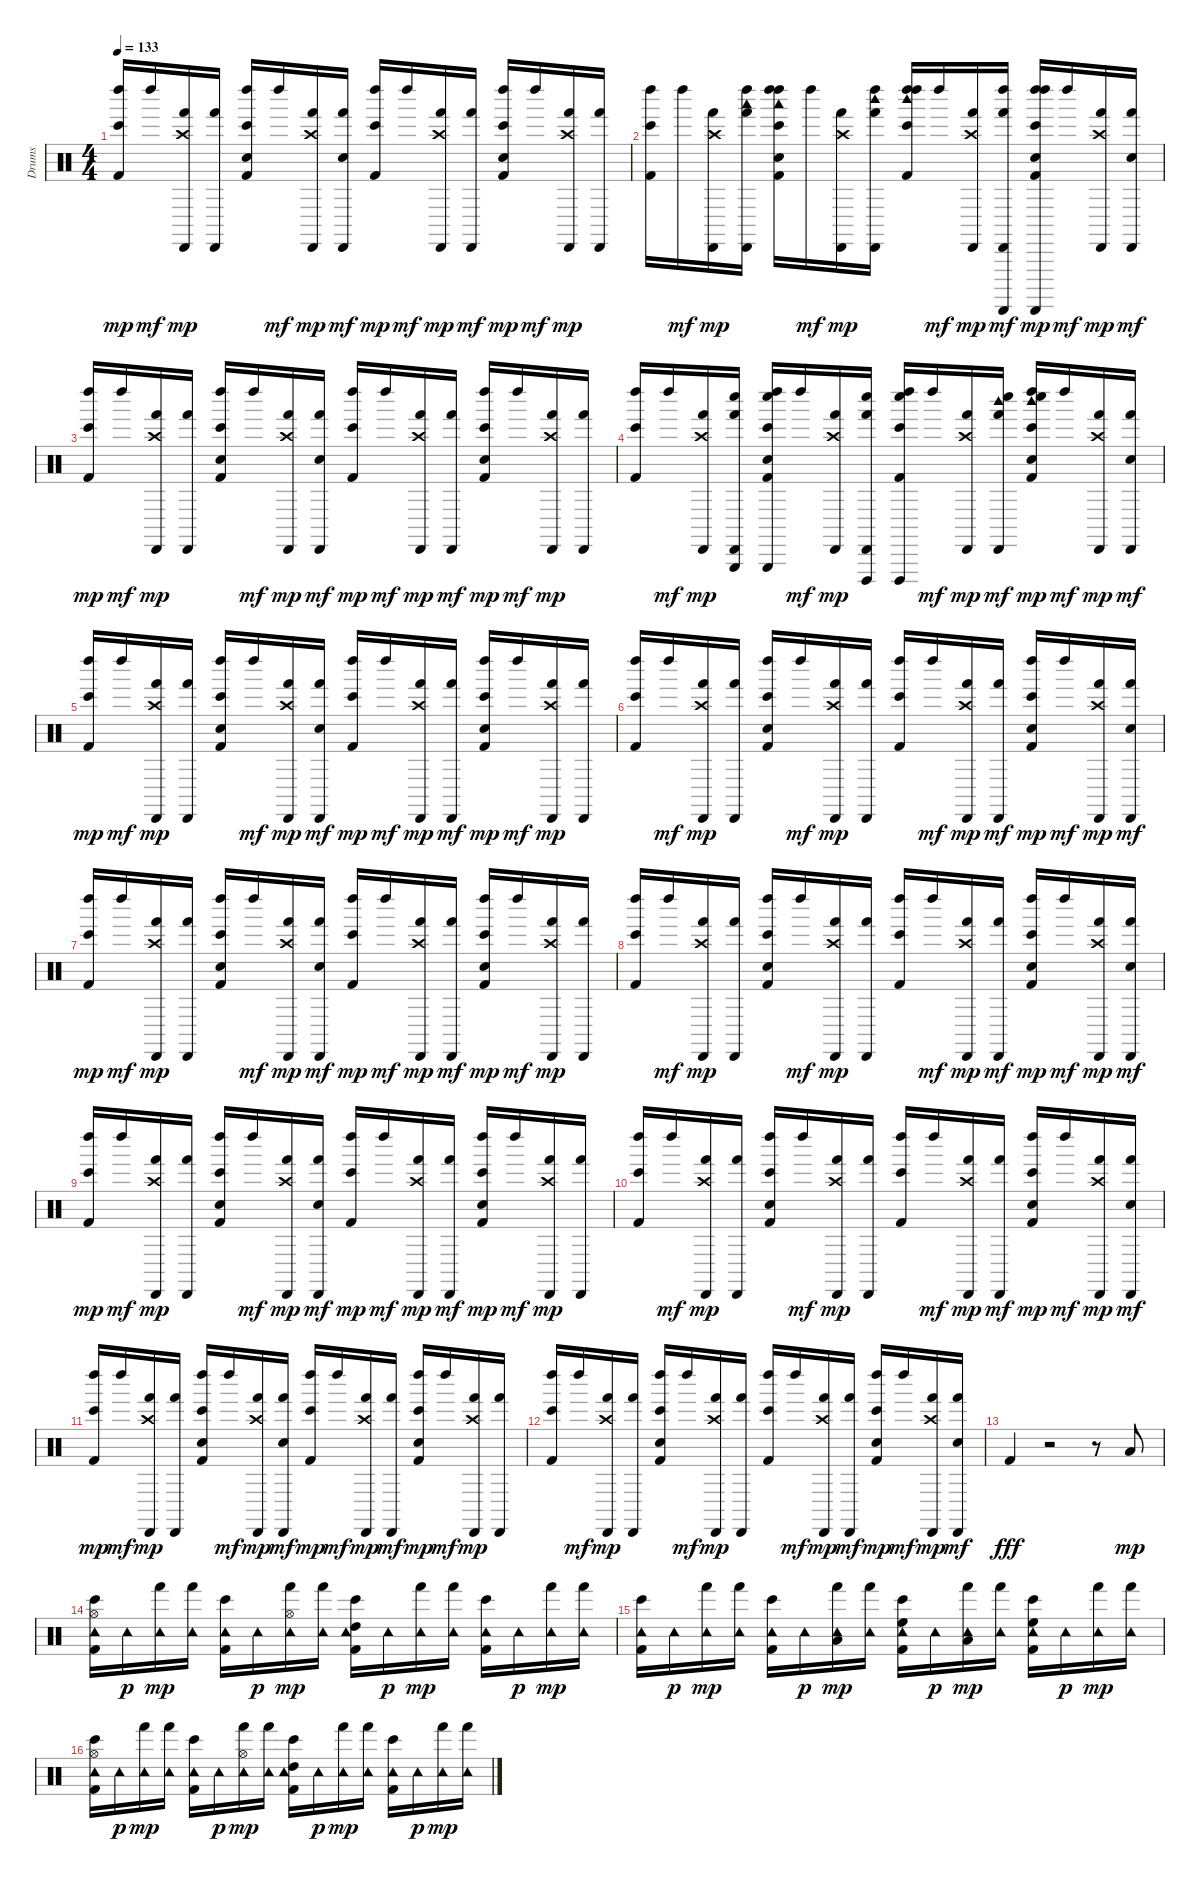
\track ("Drums" "Drums") {instrument percussion}
\staff {score}
\articulation defaults
\ts (4 4)
\tempo 133
\clef neutral
\ks c
("Kick (hit) 2" "Left Maraca (hit)" "Bongo High (hit)").16{dy mp} "Left Maraca (hit)".16{dy mf} ("Crash high (hit)" "Cabasa (hit)" "Hand (hit)").16{dy mp} ("Cabasa (hit)" "Hand (hit)").16 ("Kick (hit) 2" "Hand Clap (hit)" "Left Maraca (hit)" "Bongo High (hit)").16 "Left Maraca (hit)".16{dy mf} ("Crash high (hit)" "Cabasa (hit)" "Hand (hit)").16{dy mp} ("Cabasa (hit)" "Hand (hit)" "Snare (hit) 2").16{dy mf} ("Kick (hit) 2" "Left Maraca (hit)" "Bongo High (hit)").16{dy mp} "Left Maraca (hit)".16{dy mf} ("Crash high (hit)" "Cabasa (hit)" "Hand (hit)").16{dy mp} ("Hand (hit)" "Cabasa (hit)").16{dy mf} ("Kick (hit) 2" "Hand Clap (hit)" "Left Maraca (hit)" "Bongo High (hit)").16{dy mp} "Left Maraca (hit)".16{dy mf} ("Crash high (hit)" "Cabasa (hit)" "Hand (hit)").16{dy mp} ("Cabasa (hit)" "Hand (hit)").16 |
("Kick (hit) 2" "Left Maraca (hit)" "Bongo High (hit)").16 "Left Maraca (hit)".16{dy mf} ("Crash high (hit)" "Cabasa (hit)" "Hand (hit)").16{dy mp} ("Cabasa (hit)" "Hand (hit)" "Left Maraca (hit)" "Woodblock low (hit)").16 ("Kick (hit) 2" "Hand Clap (hit)" "Left Maraca (hit)" "Bongo High (hit)" "Left Maraca (hit)" "Woodblock low (hit)").16 "Left Maraca (hit)".16{dy mf} ("Crash high (hit)" "Cabasa (hit)" "Hand (hit)").16{dy mp} ("Cabasa (hit)" "Hand (hit)" "Left Maraca (hit)" "Woodblock high (hit)").16 ("Kick (hit) 2" "Left Maraca (hit)" "Bongo High (hit)" "Left Maraca (hit)" "Woodblock high (hit)").16 "Left Maraca (hit)".16{dy mf} ("Crash high (hit)" "Cabasa (hit)" "Hand (hit)").16{dy mp} ("Hand (hit)" "Left Maraca (hit)" "Guiro (scrap-return)" "Cabasa (hit)").16{dy mf} ("Kick (hit) 2" "Hand Clap (hit)" "Left Maraca (hit)" "Bongo High (hit)" "Left Maraca (hit)" "Guiro (scrap-return)").16{dy mp} "Left Maraca (hit)".16{dy mf} ("Crash high (hit)" "Cabasa (hit)" "Hand (hit)").16{dy mp} ("Cabasa (hit)" "Hand (hit)" "Snare (hit) 2").16{dy mf} |
("Kick (hit) 2" "Left Maraca (hit)" "Bongo High (hit)").16{dy mp} "Left Maraca (hit)".16{dy mf} ("Crash high (hit)" "Cabasa (hit)" "Hand (hit)").16{dy mp} ("Cabasa (hit)" "Hand (hit)").16 ("Kick (hit) 2" "Hand Clap (hit)" "Left Maraca (hit)" "Bongo High (hit)").16 "Left Maraca (hit)".16{dy mf} ("Crash high (hit)" "Cabasa (hit)" "Hand (hit)").16{dy mp} ("Cabasa (hit)" "Hand (hit)" "Snare (hit) 2").16{dy mf} ("Kick (hit) 2" "Left Maraca (hit)" "Bongo High (hit)").16{dy mp} "Left Maraca (hit)".16{dy mf} ("Crash high (hit)" "Cabasa (hit)" "Hand (hit)").16{dy mp} ("Hand (hit)" "Cabasa (hit)").16{dy mf} ("Kick (hit) 2" "Hand Clap (hit)" "Left Maraca (hit)" "Bongo High (hit)").16{dy mp} "Left Maraca (hit)".16{dy mf} ("Crash high (hit)" "Cabasa (hit)" "Hand (hit)").16{dy mp} ("Cabasa (hit)" "Hand (hit)").16 |
("Kick (hit) 2" "Left Maraca (hit)" "Bongo High (hit)").16 "Left Maraca (hit)".16{dy mf} ("Crash high (hit)" "Cabasa (hit)" "Hand (hit)").16{dy mp} ("Cabasa (hit)" "Hand (hit)" "Triangle (hit)" "Whistle low (hit)").16 ("Kick (hit) 2" "Hand Clap (hit)" "Left Maraca (hit)" "Bongo High (hit)" "Triangle (hit)" "Whistle low (hit)").16 "Left Maraca (hit)".16{dy mf} ("Crash high (hit)" "Cabasa (hit)" "Hand (hit)").16{dy mp} ("Cabasa (hit)" "Hand (hit)" "Cuica (open)" "Whistle low (hit)").16 ("Kick (hit) 2" "Left Maraca (hit)" "Bongo High (hit)" "Cuica (open)" "Whistle low (hit)").16 "Left Maraca (hit)".16{dy mf} ("Crash high (hit)" "Cabasa (hit)" "Hand (hit)").16{dy mp} ("Hand (hit)" "Woodblock high (hit)" "Whistle low (hit)" "Cabasa (hit)").16{dy mf} ("Kick (hit) 2" "Hand Clap (hit)" "Left Maraca (hit)" "Bongo High (hit)" "Woodblock high (hit)" "Whistle low (hit)").16{dy mp} "Left Maraca (hit)".16{dy mf} ("Crash high (hit)" "Cabasa (hit)" "Hand (hit)").16{dy mp} ("Cabasa (hit)" "Hand (hit)" "Snare (hit) 2").16{dy mf} |
("Kick (hit) 2" "Left Maraca (hit)" "Bongo High (hit)").16{dy mp} "Left Maraca (hit)".16{dy mf} ("Crash high (hit)" "Cabasa (hit)" "Hand (hit)").16{dy mp} ("Cabasa (hit)" "Hand (hit)").16 ("Kick (hit) 2" "Hand Clap (hit)" "Left Maraca (hit)" "Bongo High (hit)").16 "Left Maraca (hit)".16{dy mf} ("Crash high (hit)" "Cabasa (hit)" "Hand (hit)").16{dy mp} ("Cabasa (hit)" "Hand (hit)" "Snare (hit) 2").16{dy mf} ("Kick (hit) 2" "Left Maraca (hit)" "Bongo High (hit)").16{dy mp} "Left Maraca (hit)".16{dy mf} ("Crash high (hit)" "Cabasa (hit)" "Hand (hit)").16{dy mp} ("Hand (hit)" "Cabasa (hit)").16{dy mf} ("Kick (hit) 2" "Hand Clap (hit)" "Left Maraca (hit)" "Bongo High (hit)").16{dy mp} "Left Maraca (hit)".16{dy mf} ("Crash high (hit)" "Cabasa (hit)" "Hand (hit)").16{dy mp} ("Cabasa (hit)" "Hand (hit)").16 |
("Kick (hit) 2" "Left Maraca (hit)" "Bongo High (hit)").16 "Left Maraca (hit)".16{dy mf} ("Crash high (hit)" "Cabasa (hit)" "Hand (hit)").16{dy mp} ("Cabasa (hit)" "Hand (hit)").16 ("Kick (hit) 2" "Hand Clap (hit)" "Left Maraca (hit)" "Bongo High (hit)").16 "Left Maraca (hit)".16{dy mf} ("Crash high (hit)" "Cabasa (hit)" "Hand (hit)").16{dy mp} ("Cabasa (hit)" "Hand (hit)").16 ("Kick (hit) 2" "Left Maraca (hit)" "Bongo High (hit)").16 "Left Maraca (hit)".16{dy mf} ("Crash high (hit)" "Cabasa (hit)" "Hand (hit)").16{dy mp} ("Hand (hit)" "Cabasa (hit)").16{dy mf} ("Kick (hit) 2" "Hand Clap (hit)" "Left Maraca (hit)" "Bongo High (hit)").16{dy mp} "Left Maraca (hit)".16{dy mf} ("Crash high (hit)" "Cabasa (hit)" "Hand (hit)").16{dy mp} ("Cabasa (hit)" "Hand (hit)" "Snare (hit) 2").16{dy mf} |
("Kick (hit) 2" "Left Maraca (hit)" "Bongo High (hit)").16{dy mp} "Left Maraca (hit)".16{dy mf} ("Crash high (hit)" "Cabasa (hit)" "Hand (hit)").16{dy mp} ("Cabasa (hit)" "Hand (hit)").16 ("Kick (hit) 2" "Hand Clap (hit)" "Left Maraca (hit)" "Bongo High (hit)").16 "Left Maraca (hit)".16{dy mf} ("Crash high (hit)" "Cabasa (hit)" "Hand (hit)").16{dy mp} ("Cabasa (hit)" "Hand (hit)" "Snare (hit) 2").16{dy mf} ("Kick (hit) 2" "Left Maraca (hit)" "Bongo High (hit)").16{dy mp} "Left Maraca (hit)".16{dy mf} ("Crash high (hit)" "Cabasa (hit)" "Hand (hit)").16{dy mp} ("Hand (hit)" "Cabasa (hit)").16{dy mf} ("Kick (hit) 2" "Hand Clap (hit)" "Left Maraca (hit)" "Bongo High (hit)").16{dy mp} "Left Maraca (hit)".16{dy mf} ("Crash high (hit)" "Cabasa (hit)" "Hand (hit)").16{dy mp} ("Cabasa (hit)" "Hand (hit)").16 |
("Kick (hit) 2" "Left Maraca (hit)" "Bongo High (hit)").16 "Left Maraca (hit)".16{dy mf} ("Crash high (hit)" "Cabasa (hit)" "Hand (hit)").16{dy mp} ("Cabasa (hit)" "Hand (hit)").16 ("Kick (hit) 2" "Hand Clap (hit)" "Left Maraca (hit)" "Bongo High (hit)").16 "Left Maraca (hit)".16{dy mf} ("Crash high (hit)" "Cabasa (hit)" "Hand (hit)").16{dy mp} ("Cabasa (hit)" "Hand (hit)").16 ("Kick (hit) 2" "Left Maraca (hit)" "Bongo High (hit)").16 "Left Maraca (hit)".16{dy mf} ("Crash high (hit)" "Cabasa (hit)" "Hand (hit)").16{dy mp} ("Hand (hit)" "Cabasa (hit)").16{dy mf} ("Kick (hit) 2" "Hand Clap (hit)" "Left Maraca (hit)" "Bongo High (hit)").16{dy mp} "Left Maraca (hit)".16{dy mf} ("Crash high (hit)" "Cabasa (hit)" "Hand (hit)").16{dy mp} ("Cabasa (hit)" "Hand (hit)" "Snare (hit) 2").16{dy mf} |
("Kick (hit) 2" "Left Maraca (hit)" "Bongo High (hit)").16{dy mp} "Left Maraca (hit)".16{dy mf} ("Crash high (hit)" "Cabasa (hit)" "Hand (hit)").16{dy mp} ("Cabasa (hit)" "Hand (hit)").16 ("Kick (hit) 2" "Hand Clap (hit)" "Left Maraca (hit)" "Bongo High (hit)").16 "Left Maraca (hit)".16{dy mf} ("Crash high (hit)" "Cabasa (hit)" "Hand (hit)").16{dy mp} ("Cabasa (hit)" "Hand (hit)" "Snare (hit) 2").16{dy mf} ("Kick (hit) 2" "Left Maraca (hit)" "Bongo High (hit)").16{dy mp} "Left Maraca (hit)".16{dy mf} ("Crash high (hit)" "Cabasa (hit)" "Hand (hit)").16{dy mp} ("Hand (hit)" "Cabasa (hit)").16{dy mf} ("Kick (hit) 2" "Hand Clap (hit)" "Left Maraca (hit)" "Bongo High (hit)").16{dy mp} "Left Maraca (hit)".16{dy mf} ("Crash high (hit)" "Cabasa (hit)" "Hand (hit)").16{dy mp} ("Cabasa (hit)" "Hand (hit)").16 |
("Kick (hit) 2" "Left Maraca (hit)" "Bongo High (hit)").16 "Left Maraca (hit)".16{dy mf} ("Crash high (hit)" "Cabasa (hit)" "Hand (hit)").16{dy mp} ("Cabasa (hit)" "Hand (hit)").16 ("Kick (hit) 2" "Hand Clap (hit)" "Left Maraca (hit)" "Bongo High (hit)").16 "Left Maraca (hit)".16{dy mf} ("Crash high (hit)" "Cabasa (hit)" "Hand (hit)").16{dy mp} ("Cabasa (hit)" "Hand (hit)").16 ("Kick (hit) 2" "Left Maraca (hit)" "Bongo High (hit)").16 "Left Maraca (hit)".16{dy mf} ("Crash high (hit)" "Cabasa (hit)" "Hand (hit)").16{dy mp} ("Hand (hit)" "Cabasa (hit)").16{dy mf} ("Kick (hit) 2" "Hand Clap (hit)" "Left Maraca (hit)" "Bongo High (hit)").16{dy mp} "Left Maraca (hit)".16{dy mf} ("Crash high (hit)" "Cabasa (hit)" "Hand (hit)").16{dy mp} ("Cabasa (hit)" "Hand (hit)" "Snare (hit) 2").16{dy mf} |
("Kick (hit) 2" "Left Maraca (hit)" "Bongo High (hit)").16{dy mp} "Left Maraca (hit)".16{dy mf} ("Crash high (hit)" "Cabasa (hit)" "Hand (hit)").16{dy mp} ("Cabasa (hit)" "Hand (hit)").16 ("Kick (hit) 2" "Hand Clap (hit)" "Left Maraca (hit)" "Bongo High (hit)").16 "Left Maraca (hit)".16{dy mf} ("Crash high (hit)" "Cabasa (hit)" "Hand (hit)").16{dy mp} ("Cabasa (hit)" "Hand (hit)" "Snare (hit) 2").16{dy mf} ("Kick (hit) 2" "Left Maraca (hit)" "Bongo High (hit)").16{dy mp} "Left Maraca (hit)".16{dy mf} ("Crash high (hit)" "Cabasa (hit)" "Hand (hit)").16{dy mp} ("Hand (hit)" "Cabasa (hit)").16{dy mf} ("Kick (hit) 2" "Hand Clap (hit)" "Left Maraca (hit)" "Bongo High (hit)").16{dy mp} "Left Maraca (hit)".16{dy mf} ("Crash high (hit)" "Cabasa (hit)" "Hand (hit)").16{dy mp} ("Cabasa (hit)" "Hand (hit)").16 |
("Kick (hit) 2" "Left Maraca (hit)" "Bongo High (hit)").16 "Left Maraca (hit)".16{dy mf} ("Crash high (hit)" "Cabasa (hit)" "Hand (hit)").16{dy mp} ("Cabasa (hit)" "Hand (hit)").16 ("Kick (hit) 2" "Hand Clap (hit)" "Left Maraca (hit)" "Bongo High (hit)").16 "Left Maraca (hit)".16{dy mf} ("Crash high (hit)" "Cabasa (hit)" "Hand (hit)").16{dy mp} ("Cabasa (hit)" "Hand (hit)").16 ("Kick (hit) 2" "Left Maraca (hit)" "Bongo High (hit)").16 "Left Maraca (hit)".16{dy mf} ("Crash high (hit)" "Cabasa (hit)" "Hand (hit)").16{dy mp} ("Hand (hit)" "Cabasa (hit)").16{dy mf} ("Kick (hit) 2" "Hand Clap (hit)" "Left Maraca (hit)" "Bongo High (hit)").16{dy mp} "Left Maraca (hit)".16{dy mf} ("Crash high (hit)" "Cabasa (hit)" "Hand (hit)").16{dy mp} ("Cabasa (hit)" "Hand (hit)" "Snare (hit) 2").16{dy mf} |
"Kick (hit) 2".4{dy fff} r.2 r.8 "Low Floor Tom (hit)".8{dy mp} |
("Kick (hit) 2" "Tambourine (hit)" "Bongo High (hit)" "Hi-Hat (open)").16 "Tambourine (hit)".16{dy p} ("Tambourine (hit)" "Hand (hit)").16{dy mp} ("Tambourine (hit)" "Hand (hit)").16 ("Kick (hit) 2" "Tambourine (hit)" "Bongo High (hit)").16 "Tambourine (hit)".16{dy p} ("Tambourine (hit)" "Hand (hit)" "Hi-Hat (open)").16{dy mp} ("Tambourine (hit)" "Hand (hit)").16 ("Kick (hit) 2" "Tambourine (hit)" "Bongo High (hit)" "High Tom (hit)").16 "Tambourine (hit)".16{dy p} ("Tambourine (hit)" "Hand (hit)").16{dy mp} ("Tambourine (hit)" "Hand (hit)").16 ("Kick (hit) 2" "Tambourine (hit)" "Bongo High (hit)").16 "Tambourine (hit)".16{dy p} ("Tambourine (hit)" "Hand (hit)").16{dy mp} ("Tambourine (hit)" "Hand (hit)").16 |
("Kick (hit) 2" "Tambourine (hit)" "Bongo High (hit)").16 "Tambourine (hit)".16{dy p} ("Tambourine (hit)" "Hand (hit)").16{dy mp} ("Tambourine (hit)" "Hand (hit)").16 ("Kick (hit) 2" "Tambourine (hit)" "Bongo High (hit)").16 "Tambourine (hit)".16{dy p} ("Tambourine (hit)" "Hand (hit)" "Low Tom (hit)").16{dy mp} ("Tambourine (hit)" "Hand (hit)").16 ("Kick (hit) 2" "Tambourine (hit)" "Bongo High (hit)" "High Floor Tom (hit)").16 "Tambourine (hit)".16{dy p} ("Tambourine (hit)" "Hand (hit)" "Low Tom (hit)").16{dy mp} ("Tambourine (hit)" "Hand (hit)").16 ("Kick (hit) 2" "Tambourine (hit)" "Bongo High (hit)" "High Floor Tom (hit)").16 "Tambourine (hit)".16{dy p} ("Tambourine (hit)" "Hand (hit)").16{dy mp} ("Tambourine (hit)" "Hand (hit)").16 |
("Kick (hit) 2" "Tambourine (hit)" "Bongo High (hit)" "Hi-Hat (open)").16 "Tambourine (hit)".16{dy p} ("Tambourine (hit)" "Hand (hit)").16{dy mp} ("Tambourine (hit)" "Hand (hit)").16 ("Kick (hit) 2" "Tambourine (hit)" "Bongo High (hit)").16 "Tambourine (hit)".16{dy p} ("Tambourine (hit)" "Hand (hit)" "Hi-Hat (open)").16{dy mp} ("Tambourine (hit)" "Hand (hit)").16 ("Kick (hit) 2" "Tambourine (hit)" "Bongo High (hit)" "High Tom (hit)").16 "Tambourine (hit)".16{dy p} ("Tambourine (hit)" "Hand (hit)").16{dy mp} ("Tambourine (hit)" "Hand (hit)").16 ("Kick (hit) 2" "Tambourine (hit)" "Bongo High (hit)").16 "Tambourine (hit)".16{dy p} ("Tambourine (hit)" "Hand (hit)").16{dy mp} ("Tambourine (hit)" "Hand (hit)").16
